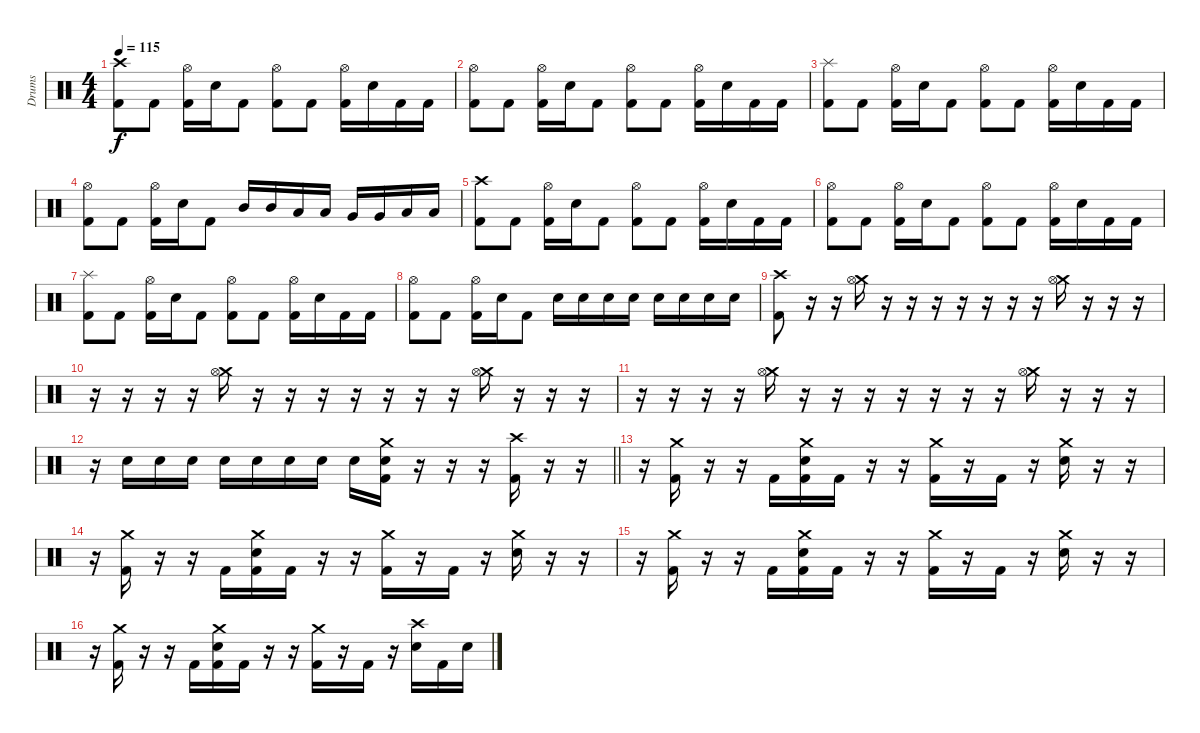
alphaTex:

\track ("Drums" "Drums") {instrument percussion}
\staff {score}
\articulation defaults
\ts (4 4)
\tempo 115
\clef neutral
\ks c
("Crash high (hit)" "Kick (hit) 2").8{dy f} "Kick (hit) 2".8 ("Hi-Hat (open)" "Kick (hit) 2").16 "Snare (hit) 2".16 "Kick (hit) 2".8 ("Hi-Hat (open)" "Kick (hit) 2").8 "Kick (hit) 2".8 ("Hi-Hat (open)" "Kick (hit) 2").16 "Snare (hit) 2".16 "Kick (hit) 2".16 "Kick (hit) 2".16 |
("Hi-Hat (open)" "Kick (hit) 2").8 "Kick (hit) 2".8 ("Hi-Hat (open)" "Kick (hit) 2").16 "Snare (hit) 2".16 "Kick (hit) 2".8 ("Hi-Hat (open)" "Kick (hit) 2").8 "Kick (hit) 2".8 ("Hi-Hat (open)" "Kick (hit) 2").16 "Snare (hit) 2".16 "Kick (hit) 2".16 "Kick (hit) 2".16 |
("Splash (hit)" "Kick (hit) 2").8 "Kick (hit) 2".8 ("Hi-Hat (open)" "Kick (hit) 2").16 "Snare (hit) 2".16 "Kick (hit) 2".8 ("Hi-Hat (open)" "Kick (hit) 2").8 "Kick (hit) 2".8 ("Hi-Hat (open)" "Kick (hit) 2").16 "Snare (hit) 2".16 "Kick (hit) 2".16 "Kick (hit) 2".16 |
("Hi-Hat (open)" "Kick (hit) 2").8 "Kick (hit) 2".8 ("Hi-Hat (open)" "Kick (hit) 2").16 "Snare (hit) 2".16 "Kick (hit) 2".8 "Mid Tom (hit)".16 "Mid Tom (hit)".16 "Low Tom (hit)".16 "Low Tom (hit)".16 "Very Low Tom (hit)".16 "Very Low Tom (hit)".16 "Low Floor Tom (hit)".16 "Low Floor Tom (hit)".16 |
("Crash high (hit)" "Kick (hit) 2").8 "Kick (hit) 2".8 ("Hi-Hat (open)" "Kick (hit) 2").16 "Snare (hit) 2".16 "Kick (hit) 2".8 ("Hi-Hat (open)" "Kick (hit) 2").8 "Kick (hit) 2".8 ("Hi-Hat (open)" "Kick (hit) 2").16 "Snare (hit) 2".16 "Kick (hit) 2".16 "Kick (hit) 2".16 |
("Hi-Hat (open)" "Kick (hit) 2").8 "Kick (hit) 2".8 ("Hi-Hat (open)" "Kick (hit) 2").16 "Snare (hit) 2".16 "Kick (hit) 2".8 ("Hi-Hat (open)" "Kick (hit) 2").8 "Kick (hit) 2".8 ("Hi-Hat (open)" "Kick (hit) 2").16 "Snare (hit) 2".16 "Kick (hit) 2".16 "Kick (hit) 2".16 |
("Splash (hit)" "Kick (hit) 2").8 "Kick (hit) 2".8 ("Hi-Hat (open)" "Kick (hit) 2").16 "Snare (hit) 2".16 "Kick (hit) 2".8 ("Hi-Hat (open)" "Kick (hit) 2").8 "Kick (hit) 2".8 ("Hi-Hat (open)" "Kick (hit) 2").16 "Snare (hit) 2".16 "Kick (hit) 2".16 "Kick (hit) 2".16 |
("Hi-Hat (open)" "Kick (hit) 2").8 "Kick (hit) 2".8 ("Hi-Hat (open)" "Kick (hit) 2").16 "Snare (hit) 2".16 "Kick (hit) 2".8 "Snare (hit) 2".16 "Snare (hit) 2".16 "Snare (hit) 2".16 "Snare (hit) 2".16 "Snare (hit) 2".16 "Snare (hit) 2".16 "Snare (hit) 2".16 "Snare (hit) 2".16 |
("Crash high (hit)" "Kick (hit) 2").8 r.16 r.16 ("Crash medium (hit)" "Hi-Hat (open)").16 r.16 r.16 r.16 r.16 r.16 r.16 r.16 ("Crash medium (hit)" "Hi-Hat (open)").16 r.16 r.16 r.16 |
r.16 r.16 r.16 r.16 ("Crash medium (hit)" "Hi-Hat (open)").16 r.16 r.16 r.16 r.16 r.16 r.16 r.16 ("Crash medium (hit)" "Hi-Hat (open)").16 r.16 r.16 r.16 |
r.16 r.16 r.16 r.16 ("Crash medium (hit)" "Hi-Hat (open)").16 r.16 r.16 r.16 r.16 r.16 r.16 r.16 ("Crash medium (hit)" "Hi-Hat (open)").16 r.16 r.16 r.16 |
\barLineRight lightlight
r.16 "Snare (hit) 2".16 "Snare (hit) 2".16 "Snare (hit) 2".16 "Snare (hit) 2".16 "Snare (hit) 2".16 "Snare (hit) 2".16 "Snare (hit) 2".16 "Snare (hit) 2".16 ("Crash medium (hit)" "Snare (hit) 2" "Kick (hit) 2").16 r.16 r.16 r.16 ("Crash high (hit)" "Kick (hit) 2").16 r.16 r.16 |
r.16 ("Crash medium (hit)" "Kick (hit) 2").16 r.16 r.16 "Kick (hit) 2".16 ("Crash medium (hit)" "Snare (hit) 2" "Kick (hit) 2").16 "Kick (hit) 2".16 r.16 r.16 ("Crash medium (hit)" "Kick (hit) 2").16 r.16 "Kick (hit) 2".16 r.16 ("Crash medium (hit)" "Snare (hit) 2").16 r.16 r.16 |
r.16 ("Crash medium (hit)" "Kick (hit) 2").16 r.16 r.16 "Kick (hit) 2".16 ("Crash medium (hit)" "Snare (hit) 2" "Kick (hit) 2").16 "Kick (hit) 2".16 r.16 r.16 ("Crash medium (hit)" "Kick (hit) 2").16 r.16 "Kick (hit) 2".16 r.16 ("Crash medium (hit)" "Snare (hit) 2").16 r.16 r.16 |
r.16 ("Crash medium (hit)" "Kick (hit) 2").16 r.16 r.16 "Kick (hit) 2".16 ("Crash medium (hit)" "Snare (hit) 2" "Kick (hit) 2").16 "Kick (hit) 2".16 r.16 r.16 ("Crash medium (hit)" "Kick (hit) 2").16 r.16 "Kick (hit) 2".16 r.16 ("Crash medium (hit)" "Snare (hit) 2").16 r.16 r.16 |
r.16 ("Crash medium (hit)" "Kick (hit) 2").16 r.16 r.16 "Kick (hit) 2".16 ("Crash medium (hit)" "Snare (hit) 2" "Kick (hit) 2").16 "Kick (hit) 2".16 r.16 r.16 ("Crash medium (hit)" "Kick (hit) 2").16 r.16 "Kick (hit) 2".16 r.16 ("Crash high (hit)" "Snare (hit) 2").16 "Kick (hit) 2".16 "Snare (hit) 2".16
